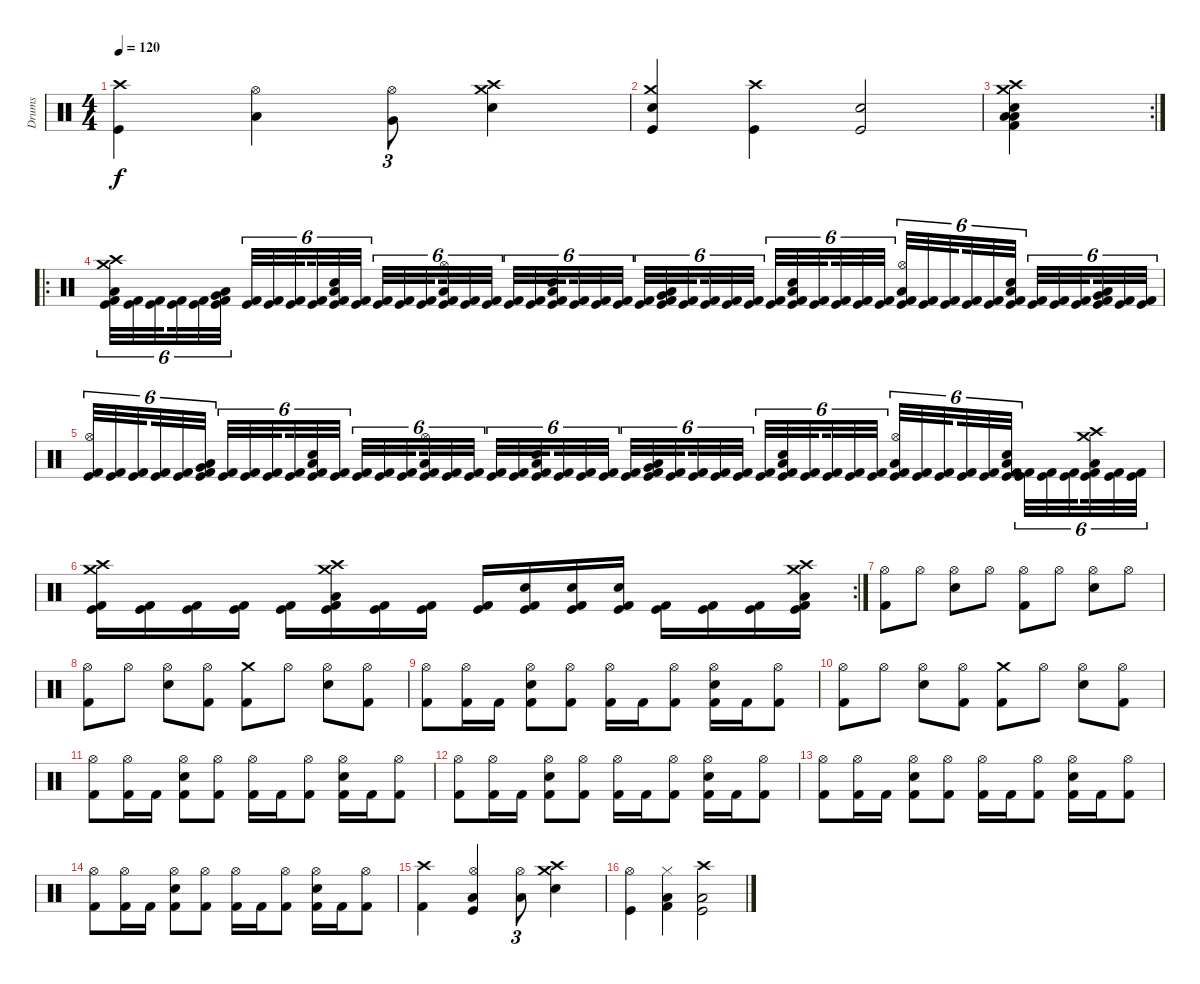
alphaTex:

\track ("Drums" "Drums") {instrument percussion}
\staff {score}
\articulation defaults
\ts (4 4)
\tempo 120
\clef neutral
\ks c
("Crash high (hit)" "Kick (hit)").4{dy f} ("Hi-Hat (open)" "Low Floor Tom (hit)").4 ("Hi-Hat (open)" "Very Low Tom (hit)").8{tu (3 2)} ("Crash medium (hit)" "Snare (hit) 2" "Crash high (hit)").4 |
("Crash medium (hit)" "Snare (hit) 2" "Kick (hit)").4 ("Crash high (hit)" "Kick (hit)").4 ("Snare (hit) 2" "Kick (hit)").2 |
\rc 2
("Crash high (hit)" "Crash medium (hit)" "Snare (hit) 2" "Low Tom (hit)" "Low Floor Tom (hit)" "Kick (hit) 2").4 |
\ro
("Crash medium (hit)" "Crash high (hit)" "Low Floor Tom (hit)" "Kick (hit)" "Kick (hit) 2").32{tu (6 4)} ("Kick (hit)" "Kick (hit) 2").32{tu (6 4)} ("Kick (hit)" "Kick (hit) 2").32{tu (6 4) beam splitsecondary} ("Kick (hit)" "Kick (hit) 2").32{tu (6 4)} ("Kick (hit)" "Kick (hit) 2").32{tu (6 4)} ("Very Low Tom (hit)" "Low Floor Tom (hit)" "Kick (hit)" "Kick (hit) 2").32{tu (6 4) beam splitsecondary} ("Kick (hit)" "Kick (hit) 2").32{tu (6 4)} ("Kick (hit)" "Kick (hit) 2").32{tu (6 4)} ("Kick (hit)" "Kick (hit) 2").32{tu (6 4) beam splitsecondary} ("Kick (hit)" "Kick (hit) 2").32{tu (6 4)} ("Low Floor Tom (hit)" "Electric Snare (hit)" "Kick (hit)" "Kick (hit) 2").32{tu (6 4)} ("Kick (hit)" "Kick (hit) 2").32{tu (6 4)} ("Kick (hit)" "Kick (hit) 2").32{tu (6 4)} ("Kick (hit)" "Kick (hit) 2").32{tu (6 4)} ("Kick (hit)" "Kick (hit) 2").32{tu (6 4) beam splitsecondary} ("Hi-Hat (open)" "Low Floor Tom (hit)" "Kick (hit)" "Kick (hit) 2").32{tu (6 4)} ("Kick (hit)" "Kick (hit) 2").32{tu (6 4)} ("Kick (hit)" "Kick (hit) 2").32{tu (6 4) beam splitsecondary} ("Kick (hit)" "Kick (hit) 2").32{tu (6 4)} ("Kick (hit)" "Kick (hit) 2").32{tu (6 4)} ("Low Floor Tom (hit)" "Snare (hit) 2" "Kick (hit)" "Kick (hit) 2").32{tu (6 4) beam splitsecondary} ("Kick (hit)" "Kick (hit) 2").32{tu (6 4)} ("Kick (hit)" "Kick (hit) 2").32{tu (6 4)} ("Kick (hit)" "Kick (hit) 2").32{tu (6 4)} ("Kick (hit)" "Kick (hit) 2").32{tu (6 4)} ("Very Low Tom (hit)" "Low Floor Tom (hit)" "Kick (hit)" "Kick (hit) 2").32{tu (6 4)} ("Kick (hit)" "Kick (hit) 2").32{tu (6 4) beam splitsecondary} ("Kick (hit)" "Kick (hit) 2").32{tu (6 4)} ("Kick (hit)" "Kick (hit) 2").32{tu (6 4)} ("Kick (hit)" "Kick (hit) 2").32{tu (6 4) beam splitsecondary} ("Kick (hit)" "Kick (hit) 2").32{tu (6 4)} ("Low Floor Tom (hit)" "Electric Snare (hit)" "Kick (hit)" "Kick (hit) 2").32{tu (6 4)} ("Kick (hit)" "Kick (hit) 2").32{tu (6 4) beam splitsecondary} ("Kick (hit)" "Kick (hit) 2").32{tu (6 4)} ("Kick (hit)" "Kick (hit) 2").32{tu (6 4)} ("Kick (hit)" "Kick (hit) 2").32{tu (6 4)} ("Hi-Hat (open)" "Low Floor Tom (hit)" "Kick (hit)" "Kick (hit) 2").32{tu (6 4)} ("Kick (hit)" "Kick (hit) 2").32{tu (6 4)} ("Kick (hit)" "Kick (hit) 2").32{tu (6 4) beam splitsecondary} ("Kick (hit)" "Kick (hit) 2").32{tu (6 4)} ("Kick (hit)" "Kick (hit) 2").32{tu (6 4)} ("Low Floor Tom (hit)" "Snare (hit) 2" "Kick (hit)" "Kick (hit) 2").32{tu (6 4) beam splitsecondary} ("Kick (hit)" "Kick (hit) 2").32{tu (6 4)} ("Kick (hit)" "Kick (hit) 2").32{tu (6 4)} ("Kick (hit)" "Kick (hit) 2").32{tu (6 4) beam splitsecondary} ("Very Low Tom (hit)" "Low Floor Tom (hit)" "Kick (hit)" "Kick (hit) 2").32{tu (6 4)} ("Kick (hit)" "Kick (hit) 2").32{tu (6 4)} ("Kick (hit)" "Kick (hit) 2").32{tu (6 4)} |
("Hi-Hat (open)" "Kick (hit)" "Kick (hit) 2").32{tu (6 4)} ("Kick (hit)" "Kick (hit) 2").32{tu (6 4)} ("Kick (hit)" "Kick (hit) 2").32{tu (6 4) beam splitsecondary} ("Kick (hit)" "Kick (hit) 2").32{tu (6 4)} ("Kick (hit)" "Kick (hit) 2").32{tu (6 4)} ("Very Low Tom (hit)" "Low Floor Tom (hit)" "Kick (hit)" "Kick (hit) 2").32{tu (6 4) beam splitsecondary} ("Kick (hit)" "Kick (hit) 2").32{tu (6 4)} ("Kick (hit)" "Kick (hit) 2").32{tu (6 4)} ("Kick (hit)" "Kick (hit) 2").32{tu (6 4) beam splitsecondary} ("Kick (hit)" "Kick (hit) 2").32{tu (6 4)} ("Low Floor Tom (hit)" "Electric Snare (hit)" "Kick (hit)" "Kick (hit) 2").32{tu (6 4)} ("Kick (hit)" "Kick (hit) 2").32{tu (6 4)} ("Kick (hit)" "Kick (hit) 2").32{tu (6 4)} ("Kick (hit)" "Kick (hit) 2").32{tu (6 4)} ("Kick (hit)" "Kick (hit) 2").32{tu (6 4) beam splitsecondary} ("Hi-Hat (open)" "Low Floor Tom (hit)" "Kick (hit)" "Kick (hit) 2").32{tu (6 4)} ("Kick (hit)" "Kick (hit) 2").32{tu (6 4)} ("Kick (hit)" "Kick (hit) 2").32{tu (6 4) beam splitsecondary} ("Kick (hit)" "Kick (hit) 2").32{tu (6 4)} ("Kick (hit)" "Kick (hit) 2").32{tu (6 4)} ("Low Floor Tom (hit)" "Snare (hit) 2" "Kick (hit)" "Kick (hit) 2").32{tu (6 4) beam splitsecondary} ("Kick (hit)" "Kick (hit) 2").32{tu (6 4)} ("Kick (hit)" "Kick (hit) 2").32{tu (6 4)} ("Kick (hit)" "Kick (hit) 2").32{tu (6 4)} ("Kick (hit)" "Kick (hit) 2").32{tu (6 4)} ("Very Low Tom (hit)" "Low Floor Tom (hit)" "Kick (hit)" "Kick (hit) 2").32{tu (6 4)} ("Kick (hit)" "Kick (hit) 2").32{tu (6 4) beam splitsecondary} ("Kick (hit)" "Kick (hit) 2").32{tu (6 4)} ("Kick (hit)" "Kick (hit) 2").32{tu (6 4)} ("Kick (hit)" "Kick (hit) 2").32{tu (6 4) beam splitsecondary} ("Kick (hit)" "Kick (hit) 2").32{tu (6 4)} ("Low Floor Tom (hit)" "Electric Snare (hit)" "Kick (hit)" "Kick (hit) 2").32{tu (6 4)} ("Kick (hit)" "Kick (hit) 2").32{tu (6 4) beam splitsecondary} ("Kick (hit)" "Kick (hit) 2").32{tu (6 4)} ("Kick (hit)" "Kick (hit) 2").32{tu (6 4)} ("Kick (hit)" "Kick (hit) 2").32{tu (6 4)} ("Hi-Hat (open)" "Low Floor Tom (hit)" "Kick (hit)" "Kick (hit) 2").32{tu (6 4)} ("Kick (hit)" "Kick (hit) 2").32{tu (6 4)} ("Kick (hit)" "Kick (hit) 2").32{tu (6 4) beam splitsecondary} ("Kick (hit)" "Kick (hit) 2").32{tu (6 4)} ("Kick (hit)" "Kick (hit) 2").32{tu (6 4)} ("Low Floor Tom (hit)" "Snare (hit) 2" "Kick (hit)" "Kick (hit) 2").32{tu (6 4) beam splitsecondary} ("Kick (hit)" "Kick (hit) 2").32{tu (6 4)} ("Kick (hit)" "Kick (hit) 2").32{tu (6 4)} ("Kick (hit)" "Kick (hit) 2").32{tu (6 4) beam splitsecondary} ("Crash medium (hit)" "Crash high (hit)" "Low Floor Tom (hit)" "Kick (hit)" "Kick (hit) 2").32{tu (6 4)} ("Kick (hit)" "Kick (hit) 2").32{tu (6 4)} ("Kick (hit)" "Kick (hit) 2").32{tu (6 4)} |
\rc 2
("Crash medium (hit)" "Crash high (hit)" "Kick (hit)" "Kick (hit) 2").16 ("Kick (hit)" "Kick (hit) 2").16 ("Kick (hit)" "Kick (hit) 2").16 ("Kick (hit)" "Kick (hit) 2").16 ("Kick (hit)" "Kick (hit) 2").16 ("Crash medium (hit)" "Crash high (hit)" "Low Floor Tom (hit)" "Kick (hit)" "Kick (hit) 2").16 ("Kick (hit)" "Kick (hit) 2").16 ("Kick (hit)" "Kick (hit) 2").16 ("Kick (hit)" "Kick (hit) 2").16 ("Snare (hit) 2" "Kick (hit)" "Kick (hit) 2").16 ("Electric Snare (hit)" "Kick (hit)" "Kick (hit) 2").16 ("Snare (hit) 2" "Kick (hit)" "Kick (hit) 2").16 ("Kick (hit)" "Kick (hit) 2").16 ("Kick (hit)" "Kick (hit) 2").16 ("Kick (hit)" "Kick (hit) 2").16 ("Crash medium (hit)" "Crash high (hit)" "Low Floor Tom (hit)" "Kick (hit)" "Kick (hit) 2").16 |
("Hi-Hat (open)" "Kick (hit) 2").8 "Hi-Hat (open)".8 ("Hi-Hat (open)" "Snare (hit) 2").8 "Hi-Hat (open)".8 ("Hi-Hat (open)" "Kick (hit) 2").8 "Hi-Hat (open)".8 ("Hi-Hat (open)" "Snare (hit) 2").8 "Hi-Hat (open)".8 |
("Hi-Hat (open)" "Kick (hit) 2").8 "Hi-Hat (open)".8 ("Hi-Hat (open)" "Snare (hit) 2").8 ("Hi-Hat (open)" "Kick (hit) 2").8 ("Crash medium (hit)" "Kick (hit) 2").8 "Hi-Hat (open)".8 ("Hi-Hat (open)" "Snare (hit) 2").8 ("Hi-Hat (open)" "Kick (hit) 2").8 |
("Hi-Hat (open)" "Kick (hit) 2").8 ("Hi-Hat (open)" "Kick (hit) 2").16 "Kick (hit) 2".16 ("Hi-Hat (open)" "Snare (hit) 2" "Kick (hit) 2").8 ("Hi-Hat (open)" "Kick (hit) 2").8 ("Hi-Hat (open)" "Kick (hit) 2").16 "Kick (hit) 2".16 ("Hi-Hat (open)" "Kick (hit) 2").8 ("Hi-Hat (open)" "Snare (hit) 2" "Kick (hit) 2").16 "Kick (hit) 2".16 ("Hi-Hat (open)" "Kick (hit) 2").8 |
("Hi-Hat (open)" "Kick (hit) 2").8 "Hi-Hat (open)".8 ("Hi-Hat (open)" "Snare (hit) 2").8 ("Hi-Hat (open)" "Kick (hit) 2").8 ("Crash medium (hit)" "Kick (hit) 2").8 "Hi-Hat (open)".8 ("Hi-Hat (open)" "Snare (hit) 2").8 ("Hi-Hat (open)" "Kick (hit) 2").8 |
("Hi-Hat (open)" "Kick (hit) 2").8 ("Hi-Hat (open)" "Kick (hit) 2").16 "Kick (hit) 2".16 ("Hi-Hat (open)" "Snare (hit) 2" "Kick (hit) 2").8 ("Hi-Hat (open)" "Kick (hit) 2").8 ("Hi-Hat (open)" "Kick (hit) 2").16 "Kick (hit) 2".16 ("Hi-Hat (open)" "Kick (hit) 2").8 ("Hi-Hat (open)" "Snare (hit) 2" "Kick (hit) 2").16 "Kick (hit) 2".16 ("Hi-Hat (open)" "Kick (hit) 2").8 |
("Hi-Hat (open)" "Kick (hit) 2").8 ("Hi-Hat (open)" "Kick (hit) 2").16 "Kick (hit) 2".16 ("Hi-Hat (open)" "Snare (hit) 2" "Kick (hit) 2").8 ("Hi-Hat (open)" "Kick (hit) 2").8 ("Hi-Hat (open)" "Kick (hit) 2").16 "Kick (hit) 2".16 ("Hi-Hat (open)" "Kick (hit) 2").8 ("Hi-Hat (open)" "Snare (hit) 2" "Kick (hit) 2").16 "Kick (hit) 2".16 ("Hi-Hat (open)" "Kick (hit) 2").8 |
("Hi-Hat (open)" "Kick (hit) 2").8 ("Hi-Hat (open)" "Kick (hit) 2").16 "Kick (hit) 2".16 ("Hi-Hat (open)" "Snare (hit) 2" "Kick (hit) 2").8 ("Hi-Hat (open)" "Kick (hit) 2").8 ("Hi-Hat (open)" "Kick (hit) 2").16 "Kick (hit) 2".16 ("Hi-Hat (open)" "Kick (hit) 2").8 ("Hi-Hat (open)" "Snare (hit) 2" "Kick (hit) 2").16 "Kick (hit) 2".16 ("Hi-Hat (open)" "Kick (hit) 2").8 |
("Hi-Hat (open)" "Kick (hit) 2").8 ("Hi-Hat (open)" "Kick (hit) 2").16 "Kick (hit) 2".16 ("Hi-Hat (open)" "Snare (hit) 2" "Kick (hit) 2").8 ("Hi-Hat (open)" "Kick (hit) 2").8 ("Hi-Hat (open)" "Kick (hit) 2").16 "Kick (hit) 2".16 ("Hi-Hat (open)" "Kick (hit) 2").8 ("Hi-Hat (open)" "Snare (hit) 2" "Kick (hit) 2").16 "Kick (hit) 2".16 ("Hi-Hat (open)" "Kick (hit) 2").8 |
("Crash high (hit)" "Kick (hit) 2").4 ("Hi-Hat (open)" "Low Floor Tom (hit)" "Kick (hit)").4 ("Hi-Hat (open)" "Low Tom (hit)").8{tu (3 2)} ("Crash medium (hit)" "Snare (hit) 2" "Crash high (hit)").4 |
("Hi-Hat (open)" "Kick (hit)").4 ("Hi-Hat (closed)" "Low Floor Tom (hit)" "Kick (hit) 2").4 ("Crash high (hit)" "Low Tom (hit)" "Kick (hit)").2
